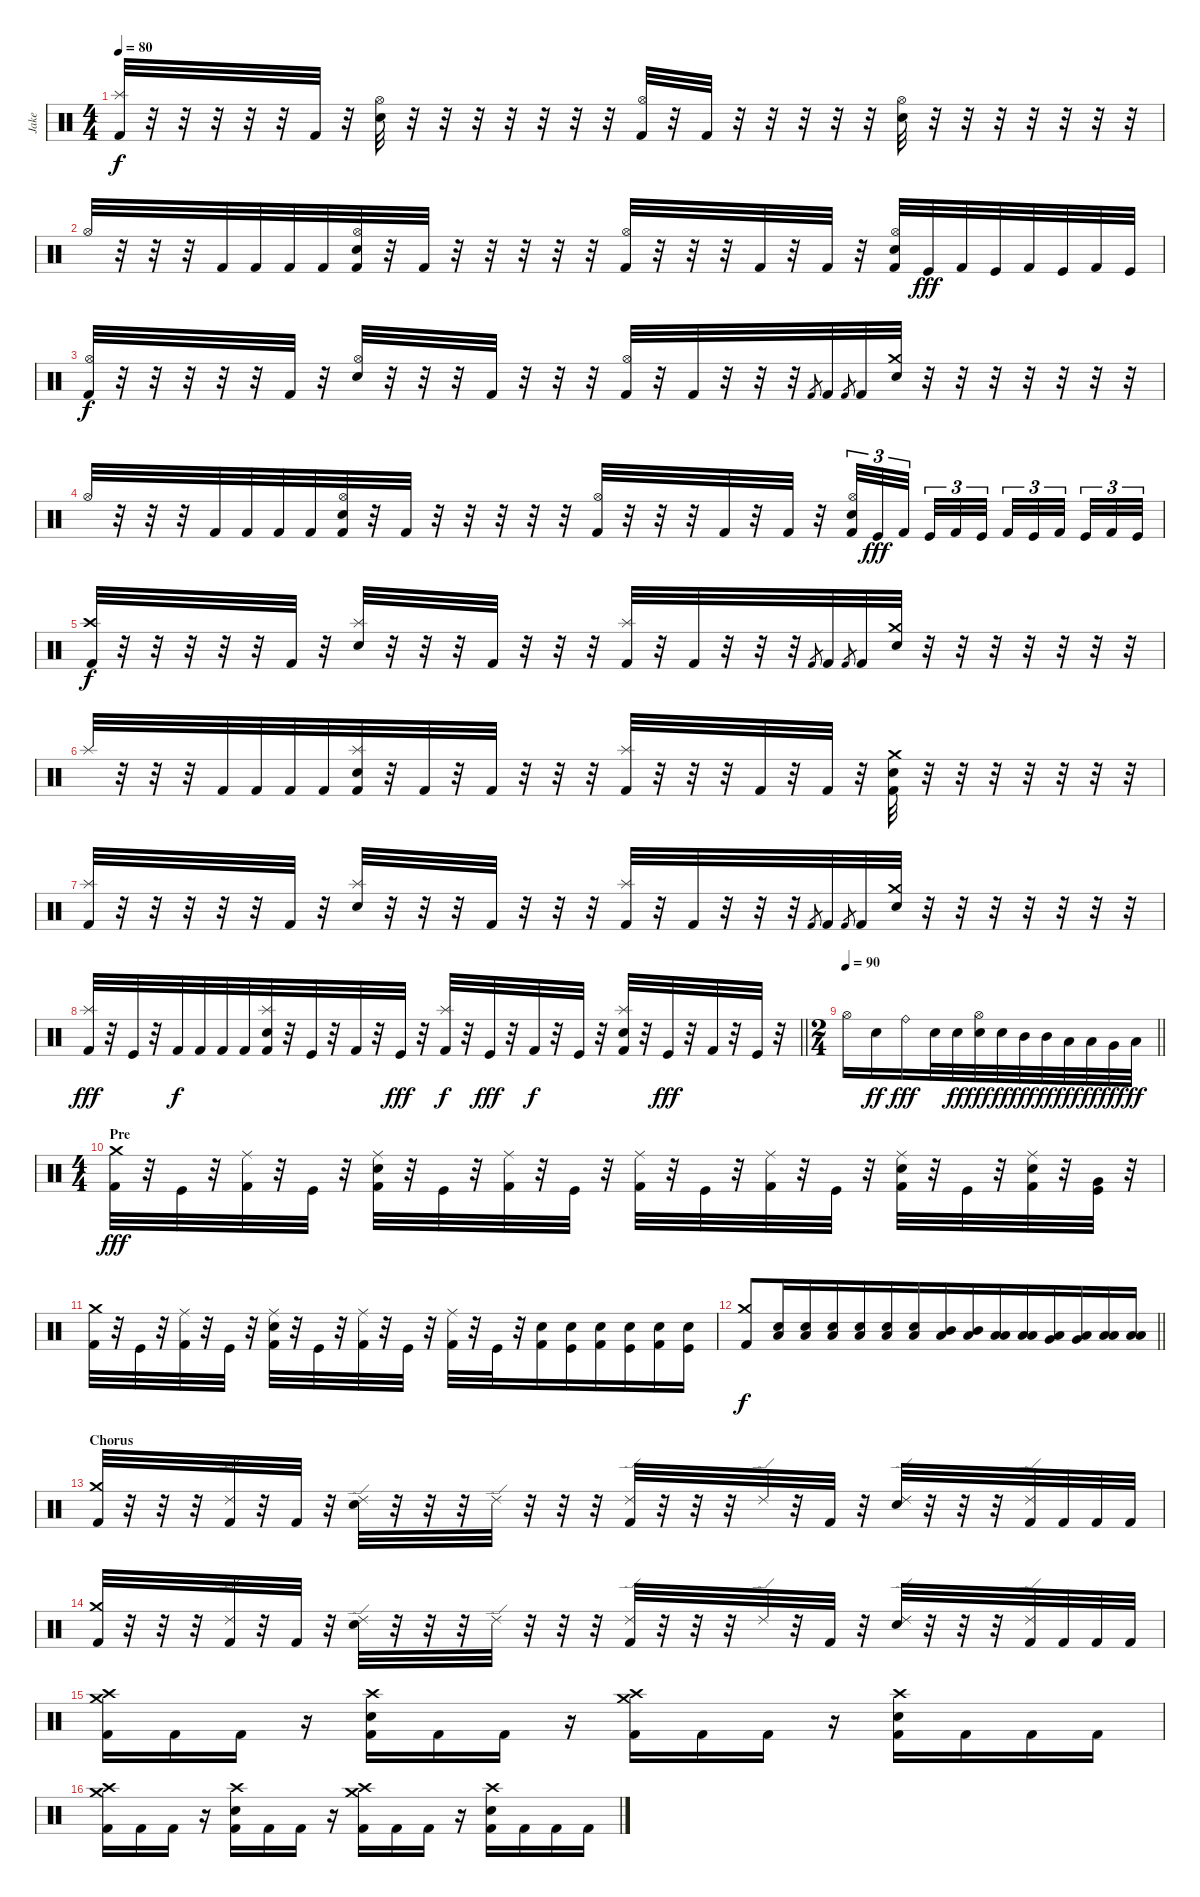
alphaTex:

\track ("Jake" "Jake") {instrument percussion}
\staff {score}
\articulation defaults
\ts (4 4)
\tempo 80
\clef neutral
\ks c
("Splash (hit)" "Kick (hit) 2").32{dy f beam Up} r.32 r.32 r.32 r.32 r.32 "Kick (hit) 2".32{beam Up} r.32 ("Hi-Hat (open)" "Electric Snare (hit)").32 r.32 r.32 r.32 r.32 r.32 r.32 r.32 ("Hi-Hat (open)" "Kick (hit) 2").32 r.32 "Kick (hit) 2".32{beam Up} r.32 r.32 r.32 r.32 r.32 ("Hi-Hat (open)" "Electric Snare (hit)").32 r.32 r.32 r.32 r.32 r.32 r.32 r.32 |
"Hi-Hat (open)".32 r.32 r.32 r.32 "Kick (hit) 2".32{beam Up beam merge} "Kick (hit) 2".32{beam Up beam merge} "Kick (hit) 2".32{beam Up beam merge} "Kick (hit) 2".32{beam Up beam merge} ("Hi-Hat (open)" "Electric Snare (hit)" "Kick (hit) 2").32 r.32 "Kick (hit) 2".32{beam Up} r.32 r.32 r.32 r.32 r.32 ("Hi-Hat (open)" "Kick (hit) 2").32 r.32 r.32 r.32 "Kick (hit) 2".32{beam Up} r.32 "Kick (hit) 2".32{beam Up} r.32 ("Hi-Hat (open)" "Electric Snare (hit)" "Kick (hit) 2").32{beam merge} "Kick (hit)".32{dy fff beam merge} "Kick (hit) 2".32{beam merge} "Kick (hit)".32{beam merge} "Kick (hit) 2".32{beam merge} "Kick (hit)".32{beam merge} "Kick (hit) 2".32{beam merge} "Kick (hit)".32 |
("Hi-Hat (open)" "Kick (hit) 2").32{dy f} r.32 r.32 r.32 r.32 r.32 "Kick (hit) 2".32{beam Up} r.32 ("Hi-Hat (open)" "Electric Snare (hit)").32 r.32 r.32 r.32 "Kick (hit) 2".32{beam Up} r.32 r.32 r.32 ("Hi-Hat (open)" "Kick (hit) 2").32 r.32 "Kick (hit) 2".32{beam Up} r.32 r.32 r.32 "Kick (hit) 2".8{gr} "Kick (hit) 2".32{beam Up} "Kick (hit) 2".8{gr beam merge} "Kick (hit) 2".32{beam Up beam merge} ("Crash medium (hit)" "Electric Snare (hit)").32 r.32 r.32 r.32 r.32 r.32 r.32 r.32 |
"Hi-Hat (open)".32 r.32 r.32 r.32 "Kick (hit) 2".32{beam Up beam merge} "Kick (hit) 2".32{beam Up beam merge} "Kick (hit) 2".32{beam Up beam merge} "Kick (hit) 2".32{beam Up beam merge} ("Hi-Hat (open)" "Electric Snare (hit)" "Kick (hit) 2").32 r.32 "Kick (hit) 2".32{beam Up} r.32 r.32 r.32 r.32 r.32 ("Hi-Hat (open)" "Kick (hit) 2").32 r.32 r.32 r.32 "Kick (hit) 2".32{beam Up} r.32 "Kick (hit) 2".32{beam Up} r.32 ("Hi-Hat (open)" "Electric Snare (hit)" "Kick (hit) 2").32{tu (3 2) beam merge} "Kick (hit)".32{tu (3 2) dy fff beam merge} "Kick (hit) 2".32{tu (3 2) beam splitsecondary} "Kick (hit)".32{tu (3 2) beam merge} "Kick (hit) 2".32{tu (3 2) beam merge} "Kick (hit)".32{tu (3 2) beam splitsecondary} "Kick (hit) 2".32{tu (3 2) beam merge} "Kick (hit)".32{tu (3 2) beam merge} "Kick (hit) 2".32{tu (3 2) beam splitsecondary} "Kick (hit)".32{tu (3 2) beam merge} "Kick (hit) 2".32{tu (3 2) beam merge} "Kick (hit)".32{tu (3 2)} |
("Crash high (hit)" "Kick (hit) 2").32{dy f} r.32 r.32 r.32 r.32 r.32 "Kick (hit) 2".32{beam Up} r.32 ("Splash (hit)" "Electric Snare (hit)").32 r.32 r.32 r.32 "Kick (hit) 2".32{beam Up} r.32 r.32 r.32 ("Splash (hit)" "Kick (hit) 2").32{beam Up} r.32 "Kick (hit) 2".32{beam Up} r.32 r.32 r.32 "Kick (hit) 2".8{gr} "Kick (hit) 2".32{beam Up} "Kick (hit) 2".8{gr beam merge} "Kick (hit) 2".32{beam Up beam merge} ("Crash medium (hit)" "Electric Snare (hit)").32 r.32 r.32 r.32 r.32 r.32 r.32 r.32 |
"Splash (hit)".32 r.32 r.32 r.32 "Kick (hit) 2".32{beam Up beam merge} "Kick (hit) 2".32{beam Up beam merge} "Kick (hit) 2".32{beam Up beam merge} "Kick (hit) 2".32{beam Up beam merge} ("Splash (hit)" "Electric Snare (hit)" "Kick (hit) 2").32{beam Up} r.32 "Kick (hit) 2".32{beam Up} r.32 "Kick (hit) 2".32{beam Up} r.32 r.32 r.32 ("Splash (hit)" "Kick (hit) 2").32{beam Up} r.32 r.32 r.32 "Kick (hit) 2".32{beam Up} r.32 "Kick (hit) 2".32{beam Up} r.32 ("Crash medium (hit)" "Electric Snare (hit)" "Kick (hit) 2").32 r.32 r.32 r.32 r.32 r.32 r.32 r.32 |
("Splash (hit)" "Kick (hit) 2").32{beam Up} r.32 r.32 r.32 r.32 r.32 "Kick (hit) 2".32{beam Up} r.32 ("Splash (hit)" "Electric Snare (hit)").32 r.32 r.32 r.32 "Kick (hit) 2".32{beam Up} r.32 r.32 r.32 ("Splash (hit)" "Kick (hit) 2").32{beam Up} r.32 "Kick (hit) 2".32{beam Up} r.32 r.32 r.32 "Kick (hit) 2".8{gr} "Kick (hit) 2".32{beam Up} "Kick (hit) 2".8{gr beam merge} "Kick (hit) 2".32{beam Up beam merge} ("Crash medium (hit)" "Electric Snare (hit)").32 r.32 r.32 r.32 r.32 r.32 r.32 r.32 |
\barLineRight lightlight
("Splash (hit)" "Kick (hit) 2").32{dy fff beam Up} r.32 "Kick (hit)".32{beam Up} r.32 "Kick (hit) 2".32{dy f beam Up beam merge} "Kick (hit) 2".32{beam Up beam merge} "Kick (hit) 2".32{beam Up beam merge} "Kick (hit) 2".32{beam Up beam merge} ("Splash (hit)" "Electric Snare (hit)" "Kick (hit) 2").32{beam Up} r.32 "Kick (hit)".32{beam Up} r.32 "Kick (hit) 2".32{beam Up} r.32 "Kick (hit)".32{dy fff beam Up} r.32 ("Splash (hit)" "Kick (hit) 2").32{dy f beam Up} r.32 "Kick (hit)".32{dy fff beam Up} r.32 "Kick (hit) 2".32{dy f beam Up} r.32 "Kick (hit)".32{beam Up} r.32 ("Splash (hit)" "Electric Snare (hit)" "Kick (hit) 2").32{beam Up} r.32 "Kick (hit)".32{dy fff beam Up} r.32 "Kick (hit) 2".32{beam Up} r.32 "Kick (hit)".32{beam Up} r.32 |
\ts (2 4)
\tempo 90
\barLineRight lightlight "Hi-Hat (open)".16 "Electric Snare (hit)".16{dy ff} "Ride (bell)".16{dy fff} "Electric Snare (hit)".32 "Electric Snare (hit)".32{dy ff beam merge}
("Hi-Hat (open)" "Electric Snare (hit)").32{dy fff} "Electric Snare (hit)".32{dy ff} "Mid Tom (hit)".32{dy fff} "Mid Tom (hit)".32{dy ff} "Low Tom (hit)".32{dy fff} "Low Tom (hit)".32{dy ff} "Very Low Tom (hit)".32{dy fff} "Low Floor Tom (hit)".32{dy ff} |
\ts (4 4)
\section ("" "Pre")
("Crash medium (hit)" "Kick (hit) 2").32{dy fff} r.32 "Kick (hit)".32 r.32 ("Ride (middle)" "Kick (hit) 2").32 r.32 "Kick (hit)".32 r.32 ("Ride (middle)" "Electric Snare (hit)" "Kick (hit) 2").32 r.32 "Kick (hit)".32 r.32 ("Ride (middle)" "Kick (hit) 2").32 r.32 "Kick (hit)".32 r.32 ("Ride (middle)" "Kick (hit) 2").32 r.32 "Kick (hit)".32 r.32 ("Ride (middle)" "Kick (hit) 2").32 r.32 "Kick (hit)".32 r.32 ("Ride (middle)" "Electric Snare (hit)" "Kick (hit) 2").32 r.32 "Kick (hit)".32 r.32 ("Ride (middle)" "Electric Snare (hit)" "Kick (hit) 2").32 r.32 ("Very Low Tom (hit)" "Kick (hit)").32 r.32 |
("Crash medium (hit)" "Kick (hit) 2").32 r.32 "Kick (hit)".32 r.32 ("Ride (middle)" "Kick (hit) 2").32 r.32 "Kick (hit)".32 r.32 ("Ride (middle)" "Electric Snare (hit)" "Kick (hit) 2").32 r.32 "Kick (hit)".32 r.32 ("Ride (middle)" "Kick (hit) 2").32 r.32 "Kick (hit)".32 r.32 ("Ride (middle)" "Kick (hit) 2").32 r.32 "Kick (hit)".32 r.32 ("Electric Snare (hit)" "Kick (hit) 2").16 ("Electric Snare (hit)" "Kick (hit)").16{beam merge} ("Electric Snare (hit)" "Kick (hit) 2").16 ("Electric Snare (hit)" "Kick (hit)").16 ("Electric Snare (hit)" "Kick (hit) 2").16 ("Electric Snare (hit)" "Kick (hit)").16 |
\barLineRight lightlight
("Crash medium (hit)" "Kick (hit) 2").8{dy f beam merge} ("Low Floor Tom (hit)" "Electric Snare (hit)").16{beam merge} ("Low Floor Tom (hit)" "Electric Snare (hit)").16{beam merge} ("Low Floor Tom (hit)" "Electric Snare (hit)").16{beam merge} ("Low Floor Tom (hit)" "Electric Snare (hit)").16{beam merge} ("Low Floor Tom (hit)" "Electric Snare (hit)").16{beam merge} ("Low Floor Tom (hit)" "Electric Snare (hit)").16{beam merge} ("Low Floor Tom (hit)" "Mid Tom (hit)").16{beam merge} ("Low Floor Tom (hit)" "Mid Tom (hit)").16{beam merge} ("Low Floor Tom (hit)" "Low Tom (hit)").16{beam merge} ("Low Floor Tom (hit)" "Low Tom (hit)").16{beam merge} ("Low Floor Tom (hit)" "Very Low Tom (hit)").16{beam Up beam merge} ("Low Floor Tom (hit)" "Very Low Tom (hit)").16{beam Up beam merge} ("Low Floor Tom (hit)" "Low Floor Tom (hit)").16{beam Up beam merge} ("Low Floor Tom (hit)" "Low Floor Tom (hit)").16{beam Up} |
\section ("" "Chorus")
("Crash medium (hit)" "Kick (hit) 2").32 r.32 r.32 r.32 ("Ride (edge) 2" "Kick (hit) 2").32 r.32 "Kick (hit) 2".32{beam Up} r.32 ("Ride (edge) 2" "Electric Snare (hit)").32 r.32 r.32 r.32 "Ride (edge) 2".32 r.32 r.32 r.32 ("Ride (edge) 2" "Kick (hit) 2").32 r.32 r.32 r.32 "Ride (edge) 2".32 r.32 "Kick (hit) 2".32{beam Up} r.32 ("Ride (edge) 2" "Electric Snare (hit)").32 r.32 r.32 r.32 ("Ride (edge) 2" "Kick (hit) 2").32{beam merge} "Kick (hit) 2".32{beam merge} "Kick (hit) 2".32{beam merge} "Kick (hit) 2".32 |
("Crash medium (hit)" "Kick (hit) 2").32 r.32 r.32 r.32 ("Ride (edge) 2" "Kick (hit) 2").32 r.32 "Kick (hit) 2".32{beam Up} r.32 ("Ride (edge) 2" "Electric Snare (hit)").32 r.32 r.32 r.32 "Ride (edge) 2".32 r.32 r.32 r.32 ("Ride (edge) 2" "Kick (hit) 2").32 r.32 r.32 r.32 "Ride (edge) 2".32 r.32 "Kick (hit) 2".32{beam Up} r.32 ("Ride (edge) 2" "Electric Snare (hit)").32 r.32 r.32 r.32 ("Ride (edge) 2" "Kick (hit) 2").32{beam merge} "Kick (hit) 2".32{beam merge} "Kick (hit) 2".32{beam merge} "Kick (hit) 2".32 |
("Crash medium (hit)" "Crash high (hit)" "Kick (hit) 2").16{beam merge} "Kick (hit) 2".16{beam merge} "Kick (hit) 2".16 r.16 ("Crash high (hit)" "Electric Snare (hit)" "Kick (hit) 2").16{beam merge} "Kick (hit) 2".16{beam merge} "Kick (hit) 2".16 r.16 ("Crash medium (hit)" "Crash high (hit)" "Kick (hit) 2").16{beam merge} "Kick (hit) 2".16{beam merge} "Kick (hit) 2".16 r.16 ("Crash high (hit)" "Electric Snare (hit)" "Kick (hit) 2").16{beam merge} "Kick (hit) 2".16{beam merge} "Kick (hit) 2".16{beam merge} "Kick (hit) 2".16 |
("Crash medium (hit)" "Crash high (hit)" "Kick (hit) 2").16{beam merge} "Kick (hit) 2".16{beam merge} "Kick (hit) 2".16 r.16 ("Crash high (hit)" "Electric Snare (hit)" "Kick (hit) 2").16{beam merge} "Kick (hit) 2".16{beam merge} "Kick (hit) 2".16 r.16 ("Crash medium (hit)" "Crash high (hit)" "Kick (hit) 2").16{beam merge} "Kick (hit) 2".16{beam merge} "Kick (hit) 2".16 r.16 ("Crash high (hit)" "Electric Snare (hit)" "Kick (hit) 2").16{beam merge} "Kick (hit) 2".16{beam merge} "Kick (hit) 2".16{beam merge} "Kick (hit) 2".16
